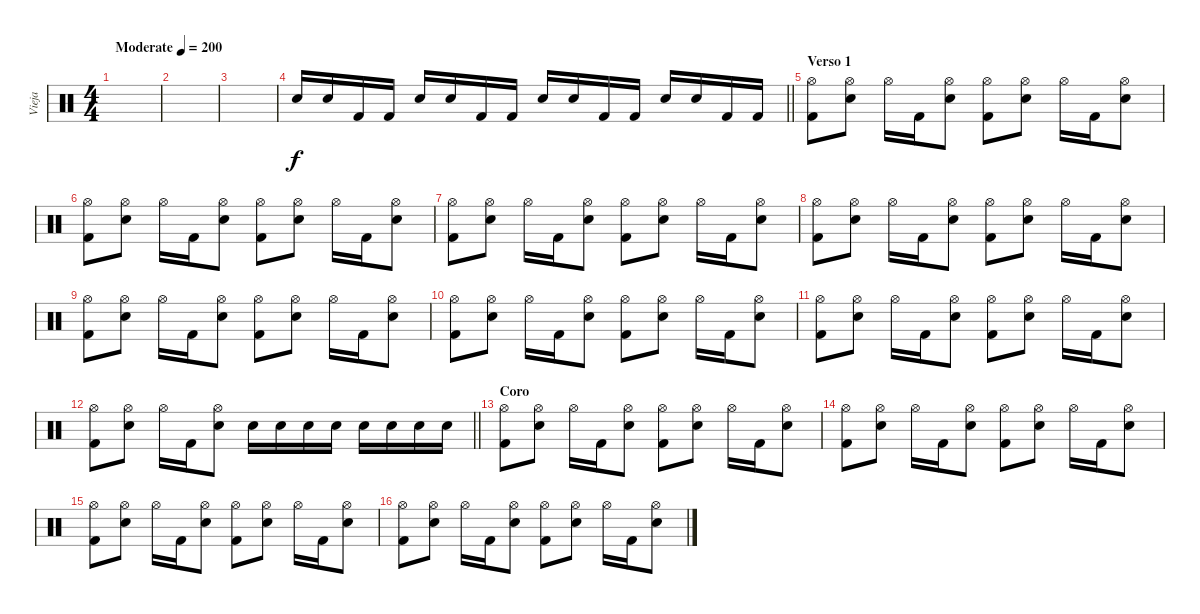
\track ("Vieja" "Vieja") {instrument percussion}
\staff {score}
\articulation defaults
\ts (4 4)
\tempo (200 "Moderate")
\clef neutral
\ks c
|
|
|
\barLineRight lightlight "Electric Snare (hit)".16 "Electric Snare (hit)".16 "Kick (hit) 2".16 "Kick (hit) 2".16 "Electric Snare (hit)".16 "Electric Snare (hit)".16 "Kick (hit) 2".16 "Kick (hit) 2".16 "Electric Snare (hit)".16 "Electric Snare (hit)".16 "Kick (hit) 2".16 "Kick (hit) 2".16 "Electric Snare (hit)".16 "Electric Snare (hit)".16 "Kick (hit) 2".16 "Kick (hit) 2".16
|
\section ("" "Verso 1")
("Hi-Hat (open)" "Kick (hit) 2").8 ("Hi-Hat (open)" "Electric Snare (hit)").8 "Hi-Hat (open)".16 "Kick (hit) 2".16 ("Hi-Hat (open)" "Electric Snare (hit)").8 ("Hi-Hat (open)" "Kick (hit) 2").8 ("Hi-Hat (open)" "Electric Snare (hit)").8 "Hi-Hat (open)".16 "Kick (hit) 2".16 ("Hi-Hat (open)" "Electric Snare (hit)").8 |
("Hi-Hat (open)" "Kick (hit) 2").8 ("Hi-Hat (open)" "Electric Snare (hit)").8 "Hi-Hat (open)".16 "Kick (hit) 2".16 ("Hi-Hat (open)" "Electric Snare (hit)").8 ("Hi-Hat (open)" "Kick (hit) 2").8 ("Hi-Hat (open)" "Electric Snare (hit)").8 "Hi-Hat (open)".16 "Kick (hit) 2".16 ("Hi-Hat (open)" "Electric Snare (hit)").8 |
("Hi-Hat (open)" "Kick (hit) 2").8 ("Hi-Hat (open)" "Electric Snare (hit)").8 "Hi-Hat (open)".16 "Kick (hit) 2".16 ("Hi-Hat (open)" "Electric Snare (hit)").8 ("Hi-Hat (open)" "Kick (hit) 2").8 ("Hi-Hat (open)" "Electric Snare (hit)").8 "Hi-Hat (open)".16 "Kick (hit) 2".16 ("Hi-Hat (open)" "Electric Snare (hit)").8 |
("Hi-Hat (open)" "Kick (hit) 2").8 ("Hi-Hat (open)" "Electric Snare (hit)").8 "Hi-Hat (open)".16 "Kick (hit) 2".16 ("Hi-Hat (open)" "Electric Snare (hit)").8 ("Hi-Hat (open)" "Kick (hit) 2").8 ("Hi-Hat (open)" "Electric Snare (hit)").8 "Hi-Hat (open)".16 "Kick (hit) 2".16 ("Hi-Hat (open)" "Electric Snare (hit)").8 |
("Hi-Hat (open)" "Kick (hit) 2").8 ("Hi-Hat (open)" "Electric Snare (hit)").8 "Hi-Hat (open)".16 "Kick (hit) 2".16 ("Hi-Hat (open)" "Electric Snare (hit)").8 ("Hi-Hat (open)" "Kick (hit) 2").8 ("Hi-Hat (open)" "Electric Snare (hit)").8 "Hi-Hat (open)".16 "Kick (hit) 2".16 ("Hi-Hat (open)" "Electric Snare (hit)").8 |
("Hi-Hat (open)" "Kick (hit) 2").8 ("Hi-Hat (open)" "Electric Snare (hit)").8 "Hi-Hat (open)".16 "Kick (hit) 2".16 ("Hi-Hat (open)" "Electric Snare (hit)").8 ("Hi-Hat (open)" "Kick (hit) 2").8 ("Hi-Hat (open)" "Electric Snare (hit)").8 "Hi-Hat (open)".16 "Kick (hit) 2".16 ("Hi-Hat (open)" "Electric Snare (hit)").8 |
("Hi-Hat (open)" "Kick (hit) 2").8 ("Hi-Hat (open)" "Electric Snare (hit)").8 "Hi-Hat (open)".16 "Kick (hit) 2".16 ("Hi-Hat (open)" "Electric Snare (hit)").8 ("Hi-Hat (open)" "Kick (hit) 2").8 ("Hi-Hat (open)" "Electric Snare (hit)").8 "Hi-Hat (open)".16 "Kick (hit) 2".16 ("Hi-Hat (open)" "Electric Snare (hit)").8 |
\barLineRight lightlight
("Hi-Hat (open)" "Kick (hit) 2").8 ("Hi-Hat (open)" "Electric Snare (hit)").8 "Hi-Hat (open)".16 "Kick (hit) 2".16 ("Hi-Hat (open)" "Electric Snare (hit)").8 "Electric Snare (hit)".16 "Electric Snare (hit)".16 "Electric Snare (hit)".16 "Electric Snare (hit)".16 "Electric Snare (hit)".16 "Electric Snare (hit)".16 "Electric Snare (hit)".16 "Electric Snare (hit)".16 |
\section ("" "Coro")
("Hi-Hat (open)" "Kick (hit) 2").8 ("Hi-Hat (open)" "Electric Snare (hit)").8 "Hi-Hat (open)".16 "Kick (hit) 2".16 ("Hi-Hat (open)" "Electric Snare (hit)").8 ("Hi-Hat (open)" "Kick (hit) 2").8 ("Hi-Hat (open)" "Electric Snare (hit)").8 "Hi-Hat (open)".16 "Kick (hit) 2".16 ("Hi-Hat (open)" "Electric Snare (hit)").8 |
("Hi-Hat (open)" "Kick (hit) 2").8 ("Hi-Hat (open)" "Electric Snare (hit)").8 "Hi-Hat (open)".16 "Kick (hit) 2".16 ("Hi-Hat (open)" "Electric Snare (hit)").8 ("Hi-Hat (open)" "Kick (hit) 2").8 ("Hi-Hat (open)" "Electric Snare (hit)").8 "Hi-Hat (open)".16 "Kick (hit) 2".16 ("Hi-Hat (open)" "Electric Snare (hit)").8 |
("Hi-Hat (open)" "Kick (hit) 2").8 ("Hi-Hat (open)" "Electric Snare (hit)").8 "Hi-Hat (open)".16 "Kick (hit) 2".16 ("Hi-Hat (open)" "Electric Snare (hit)").8 ("Hi-Hat (open)" "Kick (hit) 2").8 ("Hi-Hat (open)" "Electric Snare (hit)").8 "Hi-Hat (open)".16 "Kick (hit) 2".16 ("Hi-Hat (open)" "Electric Snare (hit)").8 |
("Hi-Hat (open)" "Kick (hit) 2").8 ("Hi-Hat (open)" "Electric Snare (hit)").8 "Hi-Hat (open)".16 "Kick (hit) 2".16 ("Hi-Hat (open)" "Electric Snare (hit)").8 ("Hi-Hat (open)" "Kick (hit) 2").8 ("Hi-Hat (open)" "Electric Snare (hit)").8 "Hi-Hat (open)".16 "Kick (hit) 2".16 ("Hi-Hat (open)" "Electric Snare (hit)").8
